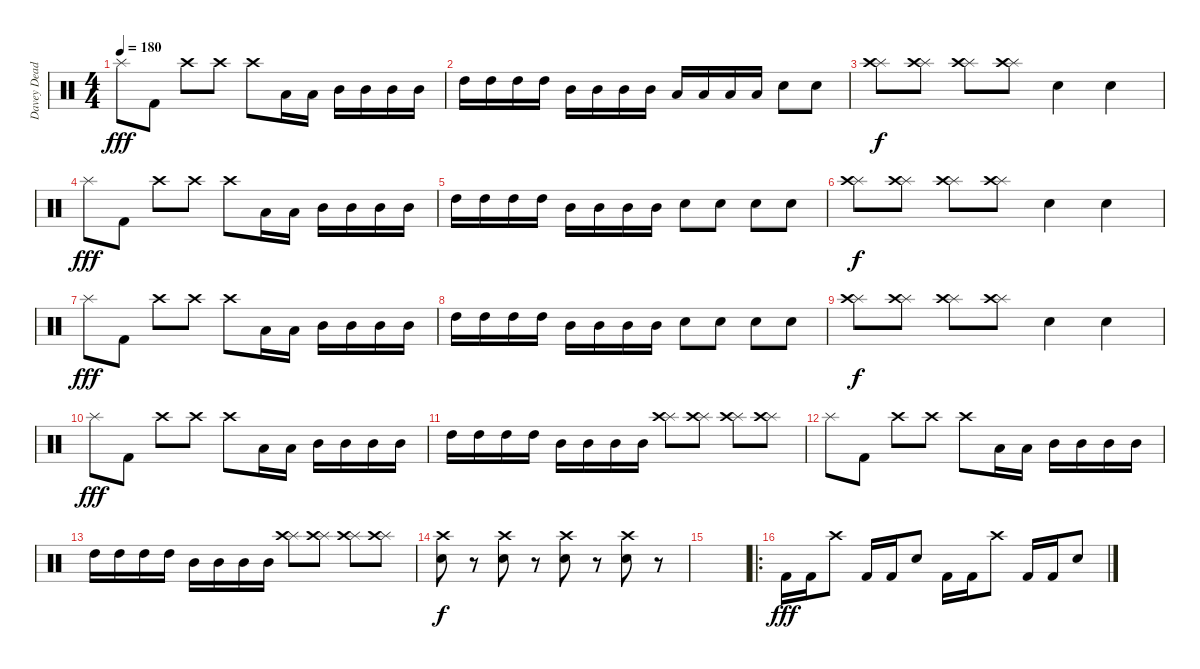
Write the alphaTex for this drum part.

\track ("Davey Dead" "Davey Dead") {instrument percussion}
\staff {score}
\articulation defaults
\ts (4 4)
\tempo 180
\clef neutral
\ks c "Splash (hit)".8{dy fff} "Kick (hit) 2".8 "Crash high (hit)".8 "Crash high (hit)".8 "Crash high (hit)".8 "Low Tom (hit)".16 "Low Tom (hit)".16 "Mid Tom (hit)".16 "Mid Tom (hit)".16 "Mid Tom (hit)".16 "Mid Tom (hit)".16
|
"High Tom (hit)".16 "High Tom (hit)".16 "High Tom (hit)".16 "High Tom (hit)".16 "Mid Tom (hit)".16 "Mid Tom (hit)".16 "Mid Tom (hit)".16 "Mid Tom (hit)".16 "Low Tom (hit)".16 "Low Tom (hit)".16 "Low Tom (hit)".16 "Low Tom (hit)".16 "Electric Snare (hit)".8 "Electric Snare (hit)".8 |
("Splash (hit)" "Crash high (hit)").8{dy f} ("Splash (hit)" "Crash high (hit)").8 ("Splash (hit)" "Crash high (hit)").8 ("Splash (hit)" "Crash high (hit)").8 "Electric Snare (hit)".4 "Electric Snare (hit)".4 |
"Splash (hit)".8{dy fff} "Kick (hit) 2".8 "Crash high (hit)".8 "Crash high (hit)".8 "Crash high (hit)".8 "Low Tom (hit)".16 "Low Tom (hit)".16 "Mid Tom (hit)".16 "Mid Tom (hit)".16 "Mid Tom (hit)".16 "Mid Tom (hit)".16 |
"High Tom (hit)".16 "High Tom (hit)".16 "High Tom (hit)".16 "High Tom (hit)".16 "Mid Tom (hit)".16 "Mid Tom (hit)".16 "Mid Tom (hit)".16 "Mid Tom (hit)".16 "Electric Snare (hit)".8 "Electric Snare (hit)".8 "Electric Snare (hit)".8 "Electric Snare (hit)".8 |
("Splash (hit)" "Crash high (hit)").8{dy f} ("Splash (hit)" "Crash high (hit)").8 ("Splash (hit)" "Crash high (hit)").8 ("Splash (hit)" "Crash high (hit)").8 "Electric Snare (hit)".4 "Electric Snare (hit)".4 |
"Splash (hit)".8{dy fff} "Kick (hit) 2".8 "Crash high (hit)".8 "Crash high (hit)".8 "Crash high (hit)".8 "Low Tom (hit)".16 "Low Tom (hit)".16 "Mid Tom (hit)".16 "Mid Tom (hit)".16 "Mid Tom (hit)".16 "Mid Tom (hit)".16 |
"High Tom (hit)".16 "High Tom (hit)".16 "High Tom (hit)".16 "High Tom (hit)".16 "Mid Tom (hit)".16 "Mid Tom (hit)".16 "Mid Tom (hit)".16 "Mid Tom (hit)".16 "Electric Snare (hit)".8 "Electric Snare (hit)".8 "Electric Snare (hit)".8 "Electric Snare (hit)".8 |
("Splash (hit)" "Crash high (hit)").8{dy f} ("Splash (hit)" "Crash high (hit)").8 ("Splash (hit)" "Crash high (hit)").8 ("Splash (hit)" "Crash high (hit)").8 "Electric Snare (hit)".4 "Electric Snare (hit)".4 |
"Splash (hit)".8{dy fff} "Kick (hit) 2".8 "Crash high (hit)".8 "Crash high (hit)".8 "Crash high (hit)".8 "Low Tom (hit)".16 "Low Tom (hit)".16 "Mid Tom (hit)".16 "Mid Tom (hit)".16 "Mid Tom (hit)".16 "Mid Tom (hit)".16 |
"High Tom (hit)".16 "High Tom (hit)".16 "High Tom (hit)".16 "High Tom (hit)".16 "Mid Tom (hit)".16 "Mid Tom (hit)".16 "Mid Tom (hit)".16 "Mid Tom (hit)".16 ("Splash (hit)" "Crash high (hit)").8 ("Splash (hit)" "Crash high (hit)").8 ("Splash (hit)" "Crash high (hit)").8 ("Splash (hit)" "Crash high (hit)").8 |
"Splash (hit)".8 "Kick (hit) 2".8 "Crash high (hit)".8 "Crash high (hit)".8 "Crash high (hit)".8 "Low Tom (hit)".16 "Low Tom (hit)".16 "Mid Tom (hit)".16 "Mid Tom (hit)".16 "Mid Tom (hit)".16 "Mid Tom (hit)".16 |
"High Tom (hit)".16 "High Tom (hit)".16 "High Tom (hit)".16 "High Tom (hit)".16 "Mid Tom (hit)".16 "Mid Tom (hit)".16 "Mid Tom (hit)".16 "Mid Tom (hit)".16 ("Splash (hit)" "Crash high (hit)").8 ("Splash (hit)" "Crash high (hit)").8 ("Splash (hit)" "Crash high (hit)").8 ("Splash (hit)" "Crash high (hit)").8 |
("Crash high (hit)" "Electric Snare (hit)").8{dy f} r.8 ("Crash high (hit)" "Electric Snare (hit)").8 r.8 ("Crash high (hit)" "Electric Snare (hit)").8 r.8 ("Crash high (hit)" "Electric Snare (hit)").8 r.8 |
|
\ro "Kick (hit) 2".16{dy fff} "Kick (hit) 2".16 "Crash high (hit)".8 "Kick (hit) 2".16 "Kick (hit) 2".16 "Electric Snare (hit)".8 "Kick (hit) 2".16 "Kick (hit) 2".16 "Crash high (hit)".8 "Kick (hit) 2".16 "Kick (hit) 2".16 "Electric Snare (hit)".8
